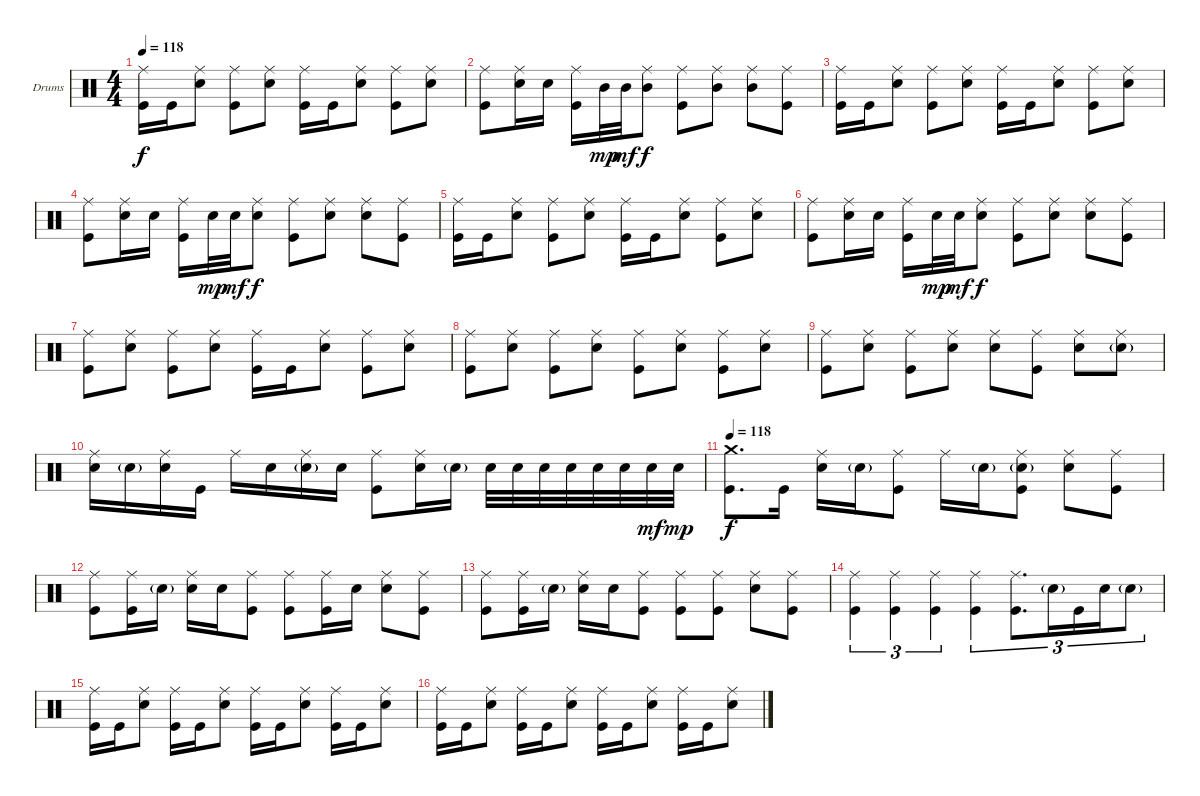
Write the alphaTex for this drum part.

\bracketExtendMode groupsimilarinstruments
\firstSystemTrackNameOrientation horizontal
\otherSystemsTrackNameOrientation horizontal
\track ("Drumkit" "Drums") {instrument percussion}
\staff {score}
\articulation defaults
\ts (4 4)
\tempo 118
\clef neutral
\ks c
("Ride (middle)" "Kick (hit)").16{dy f} "Kick (hit)".16 ("Ride (middle)" "Snare (hit) 2").8 ("Ride (middle)" "Kick (hit)").8 ("Ride (middle)" "Snare (hit) 2").8 ("Ride (middle)" "Kick (hit)").16 "Kick (hit)".16 ("Ride (middle)" "Snare (hit) 2").8 ("Ride (middle)" "Kick (hit)").8 ("Ride (middle)" "Snare (hit) 2").8 |
("Ride (middle)" "Kick (hit)").8 ("Ride (middle)" "Snare (hit) 2").16 "Snare (hit) 2".16 ("Ride (middle)" "Kick (hit)").16 "Mid Tom (hit)".32{dy mp} "Mid Tom (hit)".32{dy mf} ("Ride (middle)" "Mid Tom (hit)").8{dy f} ("Ride (middle)" "Kick (hit)").8 ("Ride (middle)" "Mid Tom (hit)").8 ("Ride (middle)" "Mid Tom (hit)").8 ("Ride (middle)" "Kick (hit)").8 |
("Ride (middle)" "Kick (hit)").16 "Kick (hit)".16 ("Ride (middle)" "Snare (hit) 2").8 ("Ride (middle)" "Kick (hit)").8 ("Ride (middle)" "Snare (hit) 2").8 ("Ride (middle)" "Kick (hit)").16 "Kick (hit)".16 ("Ride (middle)" "Snare (hit) 2").8 ("Ride (middle)" "Kick (hit)").8 ("Ride (middle)" "Snare (hit) 2").8 |
("Ride (middle)" "Kick (hit)").8 ("Ride (middle)" "Snare (hit) 2").16 "Snare (hit) 2".16 ("Ride (middle)" "Kick (hit)").16 "Snare (hit) 2".32{dy mp} "Snare (hit) 2".32{dy mf} ("Ride (middle)" "Snare (hit) 2").8{dy f} ("Ride (middle)" "Kick (hit)").8 ("Ride (middle)" "Snare (hit) 2").8 ("Ride (middle)" "Snare (hit) 2").8 ("Ride (middle)" "Kick (hit)").8 |
("Ride (middle)" "Kick (hit)").16 "Kick (hit)".16 ("Ride (middle)" "Snare (hit) 2").8 ("Ride (middle)" "Kick (hit)").8 ("Ride (middle)" "Snare (hit) 2").8 ("Ride (middle)" "Kick (hit)").16 "Kick (hit)".16 ("Ride (middle)" "Snare (hit) 2").8 ("Ride (middle)" "Kick (hit)").8 ("Ride (middle)" "Snare (hit) 2").8 |
("Ride (middle)" "Kick (hit)").8 ("Ride (middle)" "Snare (hit) 2").16 "Snare (hit) 2".16 ("Ride (middle)" "Kick (hit)").16 "Snare (hit) 2".32{dy mp} "Snare (hit) 2".32{dy mf} ("Ride (middle)" "Snare (hit) 2").8{dy f} ("Ride (middle)" "Kick (hit)").8 ("Ride (middle)" "Snare (hit) 2").8 ("Ride (middle)" "Snare (hit) 2").8 ("Ride (middle)" "Kick (hit)").8 |
("Ride (middle)" "Kick (hit)").8 ("Ride (middle)" "Snare (hit) 2").8 ("Ride (middle)" "Kick (hit)").8 ("Ride (middle)" "Snare (hit) 2").8 ("Ride (middle)" "Kick (hit)").16 "Kick (hit)".16 ("Ride (middle)" "Snare (hit) 2").8 ("Ride (middle)" "Kick (hit)").8 ("Ride (middle)" "Snare (hit) 2").8 |
("Ride (middle)" "Kick (hit)").8 ("Ride (middle)" "Snare (hit) 2").8 ("Ride (middle)" "Kick (hit)").8 ("Ride (middle)" "Snare (hit) 2").8 ("Ride (middle)" "Kick (hit)").8 ("Ride (middle)" "Snare (hit) 2").8 ("Ride (middle)" "Kick (hit)").8 ("Ride (middle)" "Snare (hit) 2").8 |
("Ride (middle)" "Kick (hit)").8 ("Ride (middle)" "Snare (hit) 2").8 ("Ride (middle)" "Kick (hit)").8 ("Ride (middle)" "Snare (hit) 2").8 ("Ride (middle)" "Snare (hit) 2").8 ("Ride (middle)" "Kick (hit)").8 ("Ride (middle)" "Snare (hit) 2").8 ("Ride (middle)" "Snare (hit) 2"{g}).8 |
("Ride (middle)" "Snare (hit) 2").16 "Snare (hit) 2"{g}.16 ("Ride (middle)" "Snare (hit) 2").16 "Kick (hit)".16 "Ride (middle)".16 "Snare (hit) 2".16 ("Ride (middle)" "Snare (hit) 2"{g}).16 "Snare (hit) 2".16 ("Ride (middle)" "Kick (hit)").8 ("Ride (middle)" "Snare (hit) 2").16 "Snare (hit) 2"{g}.16 "Snare (hit) 2".32 "Snare (hit) 2".32 "Snare (hit) 2".32 "Snare (hit) 2".32 "Snare (hit) 2".32 "Snare (hit) 2".32 "Snare (hit) 2".32{dy mf} "Snare (hit) 2".32{dy mp} |
\tempo 118
("Crash medium (hit)" "Kick (hit)").8{d dy f} "Kick (hit)".16 ("Ride (middle)" "Snare (hit) 2").16 "Snare (hit) 2"{g}.16 ("Ride (middle)" "Kick (hit)").8 "Ride (middle)".16 "Snare (hit) 2"{g}.16 ("Ride (middle)" "Snare (hit) 2"{g} "Kick (hit)").8 ("Ride (middle)" "Snare (hit) 2").8 ("Ride (middle)" "Kick (hit)").8 |
("Ride (middle)" "Kick (hit)").8 ("Ride (middle)" "Kick (hit)").16 "Snare (hit) 2"{g}.16 ("Ride (middle)" "Snare (hit) 2").16 "Snare (hit) 2".16 ("Ride (middle)" "Kick (hit)").8 ("Ride (middle)" "Kick (hit)").8 ("Ride (middle)" "Kick (hit)").16 "Snare (hit) 2".16 ("Ride (middle)" "Snare (hit) 2").8 ("Ride (middle)" "Kick (hit)").8 |
("Ride (middle)" "Kick (hit)").8 ("Ride (middle)" "Kick (hit)").16 "Snare (hit) 2"{g}.16 ("Ride (middle)" "Snare (hit) 2").16 "Snare (hit) 2".16 ("Ride (middle)" "Kick (hit)").8 ("Ride (middle)" "Kick (hit)").8 ("Ride (middle)" "Kick (hit)").8 ("Ride (middle)" "Snare (hit) 2").8 ("Ride (middle)" "Kick (hit)").8 |
("Ride (middle)" "Kick (hit)").4{tu (3 2)} ("Ride (middle)" "Kick (hit)").4{tu (3 2)} ("Ride (middle)" "Kick (hit)").4{tu (3 2)} ("Ride (middle)" "Kick (hit)").4{tu (3 2)} ("Ride (middle)" "Kick (hit)").8{d tu (3 2)} "Snare (hit) 2"{g}.16{tu (3 2)} "Kick (hit)".16{tu (3 2)} "Snare (hit) 2".16{tu (3 2)} "Snare (hit) 2"{g}.8{tu (3 2)} |
("Ride (middle)" "Kick (hit)").16 "Kick (hit)".16 ("Ride (middle)" "Snare (hit) 2").8 ("Ride (middle)" "Kick (hit)").16 "Kick (hit)".16 ("Ride (middle)" "Snare (hit) 2").8 ("Ride (middle)" "Kick (hit)").16 "Kick (hit)".16 ("Ride (middle)" "Snare (hit) 2").8 ("Ride (middle)" "Kick (hit)").16 "Kick (hit)".16 ("Ride (middle)" "Snare (hit) 2").8 |
("Ride (middle)" "Kick (hit)").16 "Kick (hit)".16 ("Ride (middle)" "Snare (hit) 2").8 ("Ride (middle)" "Kick (hit)").16 "Kick (hit)".16 ("Ride (middle)" "Snare (hit) 2").8 ("Ride (middle)" "Kick (hit)").16 "Kick (hit)".16 ("Ride (middle)" "Snare (hit) 2").8 ("Ride (middle)" "Kick (hit)").16 "Kick (hit)".16 ("Ride (middle)" "Snare (hit) 2").8
